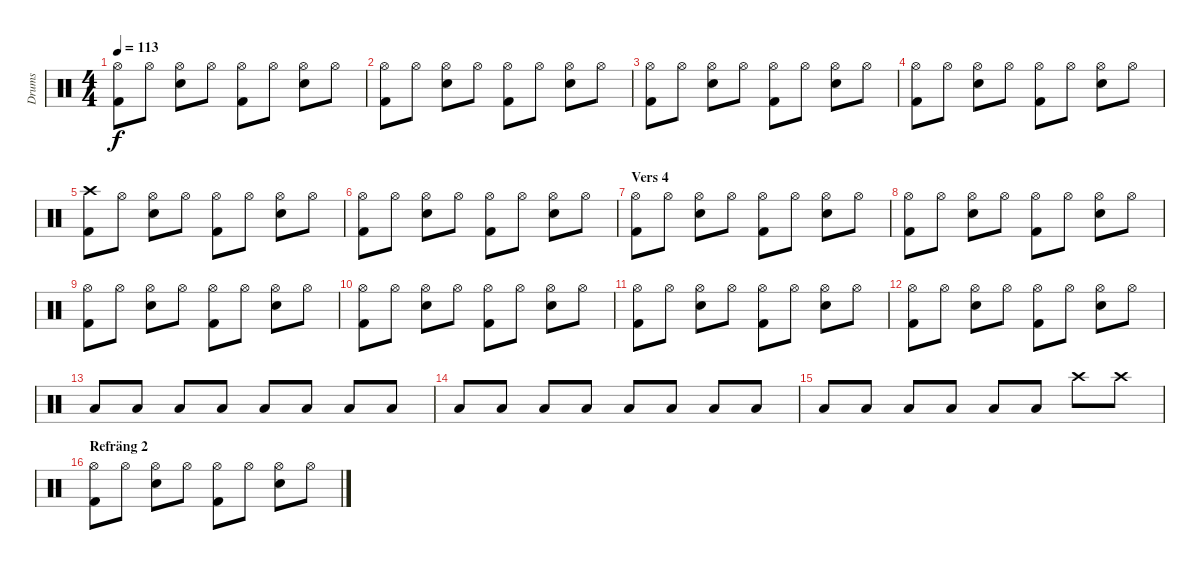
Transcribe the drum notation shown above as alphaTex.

\track ("Drums" "Drums") {instrument percussion}
\staff {score}
\articulation defaults
\ts (4 4)
\tempo 113
\clef neutral
\ks c
("Hi-Hat (open)" "Kick (hit) 2").8{dy f} "Hi-Hat (open)".8 ("Hi-Hat (open)" "Electric Snare (hit)").8 "Hi-Hat (open)".8 ("Hi-Hat (open)" "Kick (hit) 2").8 "Hi-Hat (open)".8 ("Hi-Hat (open)" "Electric Snare (hit)").8 "Hi-Hat (open)".8 |
("Hi-Hat (open)" "Kick (hit) 2").8 "Hi-Hat (open)".8 ("Hi-Hat (open)" "Electric Snare (hit)").8 "Hi-Hat (open)".8 ("Hi-Hat (open)" "Kick (hit) 2").8 "Hi-Hat (open)".8 ("Hi-Hat (open)" "Electric Snare (hit)").8 "Hi-Hat (open)".8 |
("Hi-Hat (open)" "Kick (hit) 2").8 "Hi-Hat (open)".8 ("Hi-Hat (open)" "Electric Snare (hit)").8 "Hi-Hat (open)".8 ("Hi-Hat (open)" "Kick (hit) 2").8 "Hi-Hat (open)".8 ("Hi-Hat (open)" "Electric Snare (hit)").8 "Hi-Hat (open)".8 |
("Hi-Hat (open)" "Kick (hit) 2").8 "Hi-Hat (open)".8 ("Hi-Hat (open)" "Electric Snare (hit)").8 "Hi-Hat (open)".8 ("Hi-Hat (open)" "Kick (hit) 2").8 "Hi-Hat (open)".8 ("Hi-Hat (open)" "Electric Snare (hit)").8 "Hi-Hat (open)".8 |
("Crash high (hit)" "Kick (hit) 2").8 "Hi-Hat (open)".8 ("Hi-Hat (open)" "Electric Snare (hit)").8 "Hi-Hat (open)".8 ("Hi-Hat (open)" "Kick (hit) 2").8 "Hi-Hat (open)".8 ("Hi-Hat (open)" "Electric Snare (hit)").8 "Hi-Hat (open)".8 |
("Hi-Hat (open)" "Kick (hit) 2").8 "Hi-Hat (open)".8 ("Hi-Hat (open)" "Electric Snare (hit)").8 "Hi-Hat (open)".8 ("Hi-Hat (open)" "Kick (hit) 2").8 "Hi-Hat (open)".8 ("Hi-Hat (open)" "Electric Snare (hit)").8 "Hi-Hat (open)".8 |
\section ("" "Vers 4")
("Hi-Hat (open)" "Kick (hit) 2").8 "Hi-Hat (open)".8 ("Hi-Hat (open)" "Electric Snare (hit)").8 "Hi-Hat (open)".8 ("Hi-Hat (open)" "Kick (hit) 2").8 "Hi-Hat (open)".8 ("Hi-Hat (open)" "Electric Snare (hit)").8 "Hi-Hat (open)".8 |
("Hi-Hat (open)" "Kick (hit) 2").8 "Hi-Hat (open)".8 ("Hi-Hat (open)" "Electric Snare (hit)").8 "Hi-Hat (open)".8 ("Hi-Hat (open)" "Kick (hit) 2").8 "Hi-Hat (open)".8 ("Hi-Hat (open)" "Electric Snare (hit)").8 "Hi-Hat (open)".8 |
("Hi-Hat (open)" "Kick (hit) 2").8 "Hi-Hat (open)".8 ("Hi-Hat (open)" "Electric Snare (hit)").8 "Hi-Hat (open)".8 ("Hi-Hat (open)" "Kick (hit) 2").8 "Hi-Hat (open)".8 ("Hi-Hat (open)" "Electric Snare (hit)").8 "Hi-Hat (open)".8 |
("Hi-Hat (open)" "Kick (hit) 2").8 "Hi-Hat (open)".8 ("Hi-Hat (open)" "Electric Snare (hit)").8 "Hi-Hat (open)".8 ("Hi-Hat (open)" "Kick (hit) 2").8 "Hi-Hat (open)".8 ("Hi-Hat (open)" "Electric Snare (hit)").8 "Hi-Hat (open)".8 |
("Hi-Hat (open)" "Kick (hit) 2").8 "Hi-Hat (open)".8 ("Hi-Hat (open)" "Electric Snare (hit)").8 "Hi-Hat (open)".8 ("Hi-Hat (open)" "Kick (hit) 2").8 "Hi-Hat (open)".8 ("Hi-Hat (open)" "Electric Snare (hit)").8 "Hi-Hat (open)".8 |
("Hi-Hat (open)" "Kick (hit) 2").8 "Hi-Hat (open)".8 ("Hi-Hat (open)" "Electric Snare (hit)").8 "Hi-Hat (open)".8 ("Hi-Hat (open)" "Kick (hit) 2").8 "Hi-Hat (open)".8 ("Hi-Hat (open)" "Electric Snare (hit)").8 "Hi-Hat (open)".8 |
"Low Tom (hit)".8 "Low Tom (hit)".8 "Low Tom (hit)".8 "Low Tom (hit)".8 "Low Tom (hit)".8 "Low Tom (hit)".8 "Low Tom (hit)".8 "Low Tom (hit)".8 |
"Low Tom (hit)".8 "Low Tom (hit)".8 "Low Tom (hit)".8 "Low Tom (hit)".8 "Low Tom (hit)".8 "Low Tom (hit)".8 "Low Tom (hit)".8 "Low Tom (hit)".8 |
"Low Tom (hit)".8 "Low Tom (hit)".8 "Low Tom (hit)".8 "Low Tom (hit)".8 "Low Tom (hit)".8 "Low Tom (hit)".8 "Crash high (hit)".8 "Crash high (hit)".8 |
\section ("" "Refräng 2")
("Hi-Hat (open)" "Kick (hit) 2").8 "Hi-Hat (open)".8 ("Hi-Hat (open)" "Electric Snare (hit)").8 "Hi-Hat (open)".8 ("Hi-Hat (open)" "Kick (hit) 2").8 "Hi-Hat (open)".8 ("Hi-Hat (open)" "Electric Snare (hit)").8 "Hi-Hat (open)".8
